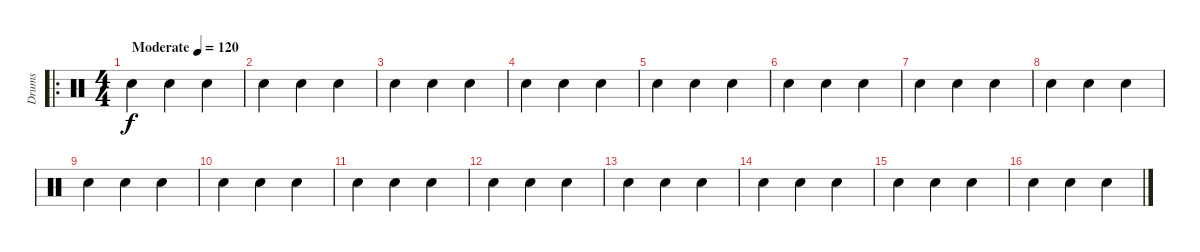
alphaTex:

\track ("Drums" "Drums") {instrument percussion}
\staff {score}
\articulation defaults
\ro
\ts (4 4)
\tempo (120 "Moderate")
\clef neutral
\ks c "Snare (hit) 2".4{dy f} "Snare (hit) 2".4 "Snare (hit) 2".4
|
"Snare (hit) 2".4 "Snare (hit) 2".4 "Snare (hit) 2".4 |
"Snare (hit) 2".4 "Snare (hit) 2".4 "Snare (hit) 2".4 |
"Snare (hit) 2".4 "Snare (hit) 2".4 "Snare (hit) 2".4 |
"Snare (hit) 2".4 "Snare (hit) 2".4 "Snare (hit) 2".4 |
"Snare (hit) 2".4 "Snare (hit) 2".4 "Snare (hit) 2".4 |
"Snare (hit) 2".4 "Snare (hit) 2".4 "Snare (hit) 2".4 |
"Snare (hit) 2".4 "Snare (hit) 2".4 "Snare (hit) 2".4 |
"Snare (hit) 2".4 "Snare (hit) 2".4 "Snare (hit) 2".4 |
"Snare (hit) 2".4 "Snare (hit) 2".4 "Snare (hit) 2".4 |
"Snare (hit) 2".4 "Snare (hit) 2".4 "Snare (hit) 2".4 |
"Snare (hit) 2".4 "Snare (hit) 2".4 "Snare (hit) 2".4 |
"Snare (hit) 2".4 "Snare (hit) 2".4 "Snare (hit) 2".4 |
"Snare (hit) 2".4 "Snare (hit) 2".4 "Snare (hit) 2".4 |
"Snare (hit) 2".4 "Snare (hit) 2".4 "Snare (hit) 2".4 |
"Snare (hit) 2".4 "Snare (hit) 2".4 "Snare (hit) 2".4
